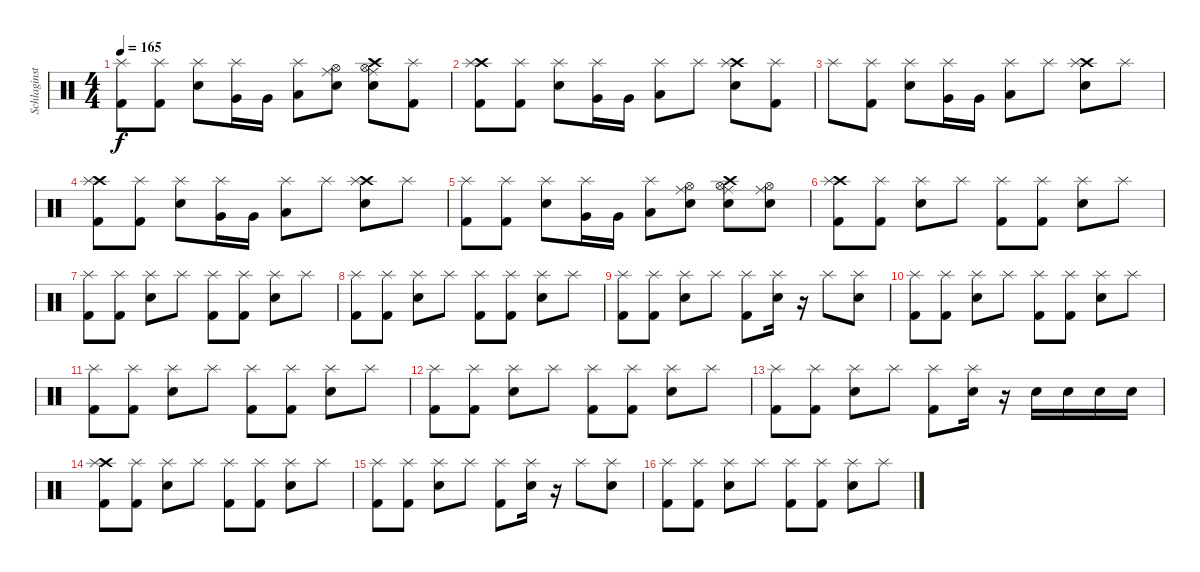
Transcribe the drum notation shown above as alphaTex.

\track ("Schlaginstrumente - Auswahl" "Schlaginst") {instrument percussion}
\staff {score}
\articulation defaults
\ts (4 4)
\tempo 165
\clef neutral
\ks c
("Splash (hit)" "Kick (hit) 2").8{dy f} ("Splash (hit)" "Kick (hit) 2").8 ("Splash (hit)" "Electric Snare (hit)").8 ("Very Low Tom (hit)" "Splash (hit)").16 "Very Low Tom (hit)".16 ("Low Floor Tom (hit)" "Splash (hit)").8 ("Ride (middle)" "Hi-Hat (open)" "Electric Snare (hit)").8 ("Crash high (hit)" "Ride (middle)" "Hi-Hat (open)" "Electric Snare (hit)").8 ("Splash (hit)" "Kick (hit) 2").8 |
("Crash high (hit)" "Splash (hit)" "Kick (hit) 2").8 ("Splash (hit)" "Kick (hit) 2").8 ("Splash (hit)" "Electric Snare (hit)").8 ("Very Low Tom (hit)" "Splash (hit)").16 "Very Low Tom (hit)".16 ("Low Floor Tom (hit)" "Splash (hit)").8 "Splash (hit)".8 ("Crash high (hit)" "Splash (hit)" "Electric Snare (hit)").8 ("Splash (hit)" "Kick (hit) 2").8 |
"Splash (hit)".8 ("Splash (hit)" "Kick (hit) 2").8 ("Splash (hit)" "Electric Snare (hit)").8 ("Very Low Tom (hit)" "Splash (hit)").16 "Very Low Tom (hit)".16 ("Low Floor Tom (hit)" "Splash (hit)").8 "Splash (hit)".8 ("Crash high (hit)" "Splash (hit)" "Electric Snare (hit)").8 "Splash (hit)".8 |
("Crash high (hit)" "Splash (hit)" "Kick (hit) 2").8 ("Splash (hit)" "Kick (hit) 2").8 ("Splash (hit)" "Electric Snare (hit)").8 ("Very Low Tom (hit)" "Splash (hit)").16 "Very Low Tom (hit)".16 ("Low Floor Tom (hit)" "Splash (hit)").8 "Splash (hit)".8 ("Crash high (hit)" "Splash (hit)" "Electric Snare (hit)").8 "Splash (hit)".8 |
("Splash (hit)" "Kick (hit) 2").8 ("Splash (hit)" "Kick (hit) 2").8 ("Splash (hit)" "Electric Snare (hit)").8 ("Very Low Tom (hit)" "Splash (hit)").16 "Very Low Tom (hit)".16 ("Low Floor Tom (hit)" "Splash (hit)").8 ("Ride (middle)" "Hi-Hat (open)" "Electric Snare (hit)").8 ("Crash high (hit)" "Ride (middle)" "Hi-Hat (open)" "Electric Snare (hit)").8 ("Ride (middle)" "Hi-Hat (open)" "Electric Snare (hit)").8 |
("Crash high (hit)" "Splash (hit)" "Kick (hit) 2").8 ("Splash (hit)" "Kick (hit) 2").8 ("Splash (hit)" "Electric Snare (hit)").8 "Splash (hit)".8 ("Splash (hit)" "Kick (hit) 2").8 ("Splash (hit)" "Kick (hit) 2").8 ("Splash (hit)" "Electric Snare (hit)").8 "Splash (hit)".8 |
("Splash (hit)" "Kick (hit) 2").8 ("Splash (hit)" "Kick (hit) 2").8 ("Splash (hit)" "Electric Snare (hit)").8 "Splash (hit)".8 ("Splash (hit)" "Kick (hit) 2").8 ("Splash (hit)" "Kick (hit) 2").8 ("Splash (hit)" "Electric Snare (hit)").8 "Splash (hit)".8 |
("Splash (hit)" "Kick (hit) 2").8 ("Splash (hit)" "Kick (hit) 2").8 ("Splash (hit)" "Electric Snare (hit)").8 "Splash (hit)".8 ("Splash (hit)" "Kick (hit) 2").8 ("Splash (hit)" "Kick (hit) 2").8 ("Splash (hit)" "Electric Snare (hit)").8 "Splash (hit)".8 |
("Splash (hit)" "Kick (hit) 2").8 ("Splash (hit)" "Kick (hit) 2").8 ("Splash (hit)" "Electric Snare (hit)").8 "Splash (hit)".8 ("Splash (hit)" "Kick (hit) 2").8 ("Splash (hit)" "Electric Snare (hit)").16 r.16 "Splash (hit)".8 ("Splash (hit)" "Electric Snare (hit)").8 |
("Splash (hit)" "Kick (hit) 2").8 ("Splash (hit)" "Kick (hit) 2").8 ("Splash (hit)" "Electric Snare (hit)").8 "Splash (hit)".8 ("Splash (hit)" "Kick (hit) 2").8 ("Splash (hit)" "Kick (hit) 2").8 ("Splash (hit)" "Electric Snare (hit)").8 "Splash (hit)".8 |
("Splash (hit)" "Kick (hit) 2").8 ("Splash (hit)" "Kick (hit) 2").8 ("Splash (hit)" "Electric Snare (hit)").8 "Splash (hit)".8 ("Splash (hit)" "Kick (hit) 2").8 ("Splash (hit)" "Kick (hit) 2").8 ("Splash (hit)" "Electric Snare (hit)").8 "Splash (hit)".8 |
("Splash (hit)" "Kick (hit) 2").8 ("Splash (hit)" "Kick (hit) 2").8 ("Splash (hit)" "Electric Snare (hit)").8 "Splash (hit)".8 ("Splash (hit)" "Kick (hit) 2").8 ("Splash (hit)" "Kick (hit) 2").8 ("Splash (hit)" "Electric Snare (hit)").8 "Splash (hit)".8 |
("Splash (hit)" "Kick (hit) 2").8 ("Splash (hit)" "Kick (hit) 2").8 ("Splash (hit)" "Electric Snare (hit)").8 "Splash (hit)".8 ("Splash (hit)" "Kick (hit) 2").8 ("Splash (hit)" "Electric Snare (hit)").16 r.16 "Electric Snare (hit)".16 "Electric Snare (hit)".16 "Electric Snare (hit)".16 "Electric Snare (hit)".16 |
("Crash high (hit)" "Splash (hit)" "Kick (hit) 2").8 ("Splash (hit)" "Kick (hit) 2").8 ("Splash (hit)" "Electric Snare (hit)").8 "Splash (hit)".8 ("Splash (hit)" "Kick (hit) 2").8 ("Splash (hit)" "Kick (hit) 2").8 ("Splash (hit)" "Electric Snare (hit)").8 "Splash (hit)".8 |
("Splash (hit)" "Kick (hit) 2").8 ("Splash (hit)" "Kick (hit) 2").8 ("Splash (hit)" "Electric Snare (hit)").8 "Splash (hit)".8 ("Splash (hit)" "Kick (hit) 2").8 ("Splash (hit)" "Electric Snare (hit)").16 r.16 "Splash (hit)".8 ("Splash (hit)" "Electric Snare (hit)").8 |
("Splash (hit)" "Kick (hit) 2").8 ("Splash (hit)" "Kick (hit) 2").8 ("Splash (hit)" "Electric Snare (hit)").8 "Splash (hit)".8 ("Splash (hit)" "Kick (hit) 2").8 ("Splash (hit)" "Kick (hit) 2").8 ("Splash (hit)" "Electric Snare (hit)").8 "Splash (hit)".8
